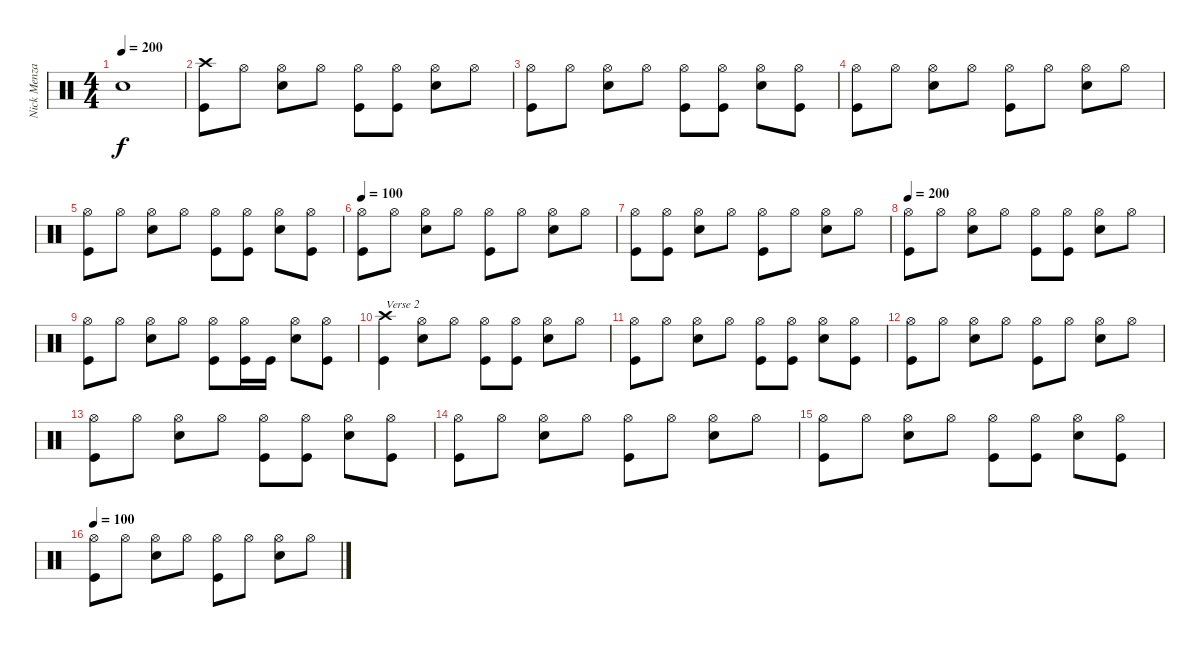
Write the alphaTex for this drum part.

\track ("Nick Menza" "Nick Menza") {instrument percussion}
\staff {score}
\articulation defaults
\ts (4 4)
\tempo 200
\clef neutral
\ks c "Snare (hit) 2".1{dy f}
|
("Crash high (hit)" "Kick (hit)").8 "Hi-Hat (open)".8 ("Hi-Hat (open)" "Snare (hit) 2").8 "Hi-Hat (open)".8 ("Hi-Hat (open)" "Kick (hit)").8 ("Hi-Hat (open)" "Kick (hit)").8 ("Hi-Hat (open)" "Snare (hit) 2").8 "Hi-Hat (open)".8 |
("Hi-Hat (open)" "Kick (hit)").8 "Hi-Hat (open)".8 ("Hi-Hat (open)" "Snare (hit) 2").8 "Hi-Hat (open)".8 ("Hi-Hat (open)" "Kick (hit)").8 ("Hi-Hat (open)" "Kick (hit)").8 ("Hi-Hat (open)" "Snare (hit) 2").8 ("Hi-Hat (open)" "Kick (hit)").8 |
("Hi-Hat (open)" "Kick (hit)").8 "Hi-Hat (open)".8 ("Hi-Hat (open)" "Snare (hit) 2").8 "Hi-Hat (open)".8 ("Hi-Hat (open)" "Kick (hit)").8 "Hi-Hat (open)".8 ("Hi-Hat (open)" "Snare (hit) 2").8 "Hi-Hat (open)".8 |
("Hi-Hat (open)" "Kick (hit)").8 "Hi-Hat (open)".8 ("Hi-Hat (open)" "Snare (hit) 2").8 "Hi-Hat (open)".8 ("Hi-Hat (open)" "Kick (hit)").8 ("Hi-Hat (open)" "Kick (hit)").8 ("Hi-Hat (open)" "Snare (hit) 2").8 ("Hi-Hat (open)" "Kick (hit)").8 |
\tempo 100
("Hi-Hat (open)" "Kick (hit)").8 "Hi-Hat (open)".8 ("Hi-Hat (open)" "Snare (hit) 2").8 "Hi-Hat (open)".8 ("Hi-Hat (open)" "Kick (hit)").8 "Hi-Hat (open)".8 ("Hi-Hat (open)" "Snare (hit) 2").8 "Hi-Hat (open)".8 |
("Hi-Hat (open)" "Kick (hit)").8 ("Hi-Hat (open)" "Kick (hit)").8 ("Hi-Hat (open)" "Snare (hit) 2").8 "Hi-Hat (open)".8 ("Hi-Hat (open)" "Kick (hit)").8 "Hi-Hat (open)".8 ("Hi-Hat (open)" "Snare (hit) 2").8 "Hi-Hat (open)".8 |
\tempo 200
("Hi-Hat (open)" "Kick (hit)").8 "Hi-Hat (open)".8 ("Hi-Hat (open)" "Snare (hit) 2").8 "Hi-Hat (open)".8 ("Hi-Hat (open)" "Kick (hit)").8 ("Hi-Hat (open)" "Kick (hit)").8 ("Hi-Hat (open)" "Snare (hit) 2").8 "Hi-Hat (open)".8 |
("Hi-Hat (open)" "Kick (hit)").8 "Hi-Hat (open)".8 ("Hi-Hat (open)" "Snare (hit) 2").8 "Hi-Hat (open)".8 ("Hi-Hat (open)" "Kick (hit)").8 ("Hi-Hat (open)" "Kick (hit)").16 "Kick (hit)".16 ("Hi-Hat (open)" "Snare (hit) 2").8 ("Hi-Hat (open)" "Kick (hit)").8 |
("Crash high (hit)" "Kick (hit)").4{txt "Verse 2"} ("Hi-Hat (open)" "Snare (hit) 2").8 "Hi-Hat (open)".8 ("Hi-Hat (open)" "Kick (hit)").8 ("Hi-Hat (open)" "Kick (hit)").8 ("Hi-Hat (open)" "Snare (hit) 2").8 "Hi-Hat (open)".8 |
("Hi-Hat (open)" "Kick (hit)").8 "Hi-Hat (open)".8 ("Hi-Hat (open)" "Snare (hit) 2").8 "Hi-Hat (open)".8 ("Hi-Hat (open)" "Kick (hit)").8 ("Hi-Hat (open)" "Kick (hit)").8 ("Hi-Hat (open)" "Snare (hit) 2").8 ("Hi-Hat (open)" "Kick (hit)").8 |
("Hi-Hat (open)" "Kick (hit)").8 "Hi-Hat (open)".8 ("Hi-Hat (open)" "Snare (hit) 2").8 "Hi-Hat (open)".8 ("Hi-Hat (open)" "Kick (hit)").8 "Hi-Hat (open)".8 ("Hi-Hat (open)" "Snare (hit) 2").8 "Hi-Hat (open)".8 |
("Hi-Hat (open)" "Kick (hit)").8 "Hi-Hat (open)".8 ("Hi-Hat (open)" "Snare (hit) 2").8 "Hi-Hat (open)".8 ("Hi-Hat (open)" "Kick (hit)").8 ("Hi-Hat (open)" "Kick (hit)").8 ("Hi-Hat (open)" "Snare (hit) 2").8 ("Hi-Hat (open)" "Kick (hit)").8 |
("Hi-Hat (open)" "Kick (hit)").8 "Hi-Hat (open)".8 ("Hi-Hat (open)" "Snare (hit) 2").8 "Hi-Hat (open)".8 ("Hi-Hat (open)" "Kick (hit)").8 "Hi-Hat (open)".8 ("Hi-Hat (open)" "Snare (hit) 2").8 "Hi-Hat (open)".8 |
("Hi-Hat (open)" "Kick (hit)").8 "Hi-Hat (open)".8 ("Hi-Hat (open)" "Snare (hit) 2").8 "Hi-Hat (open)".8 ("Hi-Hat (open)" "Kick (hit)").8 ("Hi-Hat (open)" "Kick (hit)").8 ("Hi-Hat (open)" "Snare (hit) 2").8 ("Hi-Hat (open)" "Kick (hit)").8 |
\tempo 100
("Hi-Hat (open)" "Kick (hit)").8 "Hi-Hat (open)".8 ("Hi-Hat (open)" "Snare (hit) 2").8 "Hi-Hat (open)".8 ("Hi-Hat (open)" "Kick (hit)").8 "Hi-Hat (open)".8 ("Hi-Hat (open)" "Snare (hit) 2").8 "Hi-Hat (open)".8
